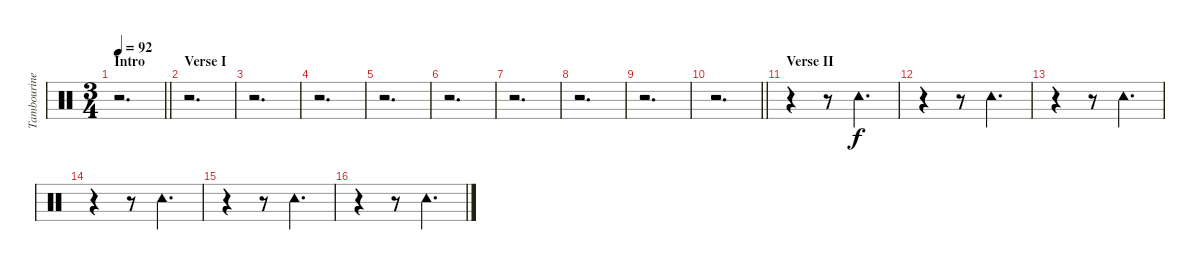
\track ("Tambourine" "Tambourine") {instrument percussion}
\staff {score}
\articulation defaults
\ts (3 4)
\section ("" "Intro")
\tempo 92
\clef neutral
\barLineRight lightlight
\ks c
r.2{d dy f} |
\section ("" "Verse I")
r.2{d} |
r.2{d} |
r.2{d} |
r.2{d} |
r.2{d} |
r.2{d} |
r.2{d} |
r.2{d} |
\barLineRight lightlight
r.2{d} |
\section ("" "Verse II")
r.4 r.8 "Tambourine (hit)".4{d} |
r.4 r.8 "Tambourine (hit)".4{d} |
r.4 r.8 "Tambourine (hit)".4{d} |
r.4 r.8 "Tambourine (hit)".4{d} |
r.4 r.8 "Tambourine (hit)".4{d} |
r.4 r.8 "Tambourine (hit)".4{d}
